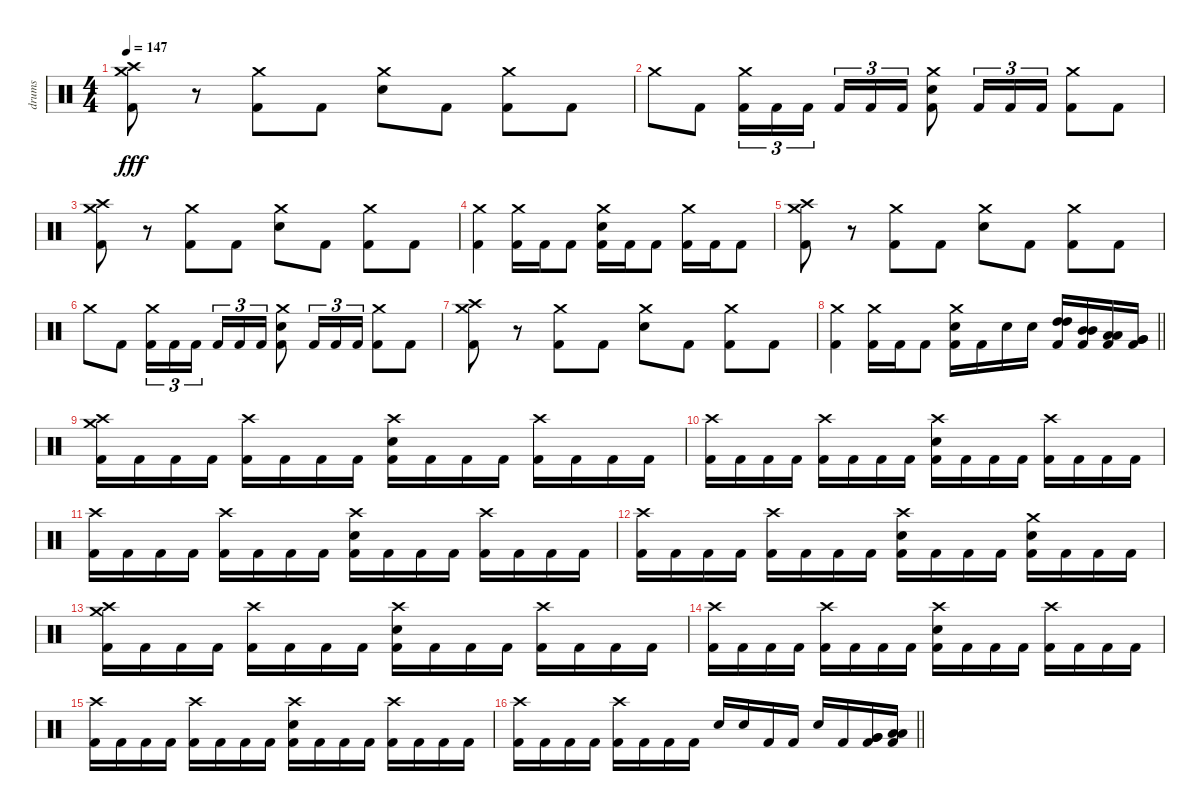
\track ("drums" "drums") {instrument percussion}
\staff {score}
\articulation defaults
\ts (4 4)
\section ("" "")
\tempo 147
\clef neutral
\ks c
("Crash high (hit)" "Crash medium (hit)" "Kick (hit) 2").8{dy fff} r.8 ("Crash medium (hit)" "Kick (hit) 2").8 "Kick (hit) 2".8 ("Crash medium (hit)" "Electric Snare (hit)").8 "Kick (hit) 2".8 ("Crash medium (hit)" "Kick (hit) 2").8 "Kick (hit) 2".8 |
"Crash medium (hit)".8 "Kick (hit) 2".8 ("Crash medium (hit)" "Kick (hit) 2").16{tu (3 2)} "Kick (hit) 2".16{tu (3 2)} "Kick (hit) 2".16{tu (3 2) beam splitsecondary} "Kick (hit) 2".16{tu (3 2)} "Kick (hit) 2".16{tu (3 2)} "Kick (hit) 2".16{tu (3 2)} ("Crash medium (hit)" "Electric Snare (hit)" "Kick (hit) 2").8 "Kick (hit) 2".16{tu (3 2)} "Kick (hit) 2".16{tu (3 2)} "Kick (hit) 2".16{tu (3 2)} ("Crash medium (hit)" "Kick (hit) 2").8 "Kick (hit) 2".8 |
("Crash high (hit)" "Crash medium (hit)" "Kick (hit) 2").8 r.8 ("Crash medium (hit)" "Kick (hit) 2").8 "Kick (hit) 2".8 ("Crash medium (hit)" "Electric Snare (hit)").8 "Kick (hit) 2".8 ("Crash medium (hit)" "Kick (hit) 2").8 "Kick (hit) 2".8 |
("Crash medium (hit)" "Kick (hit) 2").4 ("Crash medium (hit)" "Kick (hit) 2").16 "Kick (hit) 2".16 "Kick (hit) 2".8 ("Crash medium (hit)" "Electric Snare (hit)" "Kick (hit) 2").16 "Kick (hit) 2".16 "Kick (hit) 2".8 ("Crash medium (hit)" "Kick (hit) 2").16 "Kick (hit) 2".16 "Kick (hit) 2".8 |
("Crash high (hit)" "Crash medium (hit)" "Kick (hit) 2").8 r.8 ("Crash medium (hit)" "Kick (hit) 2").8 "Kick (hit) 2".8 ("Crash medium (hit)" "Electric Snare (hit)").8 "Kick (hit) 2".8 ("Crash medium (hit)" "Kick (hit) 2").8 "Kick (hit) 2".8 |
"Crash medium (hit)".8 "Kick (hit) 2".8 ("Crash medium (hit)" "Kick (hit) 2").16{tu (3 2)} "Kick (hit) 2".16{tu (3 2)} "Kick (hit) 2".16{tu (3 2) beam splitsecondary} "Kick (hit) 2".16{tu (3 2)} "Kick (hit) 2".16{tu (3 2)} "Kick (hit) 2".16{tu (3 2)} ("Crash medium (hit)" "Electric Snare (hit)" "Kick (hit) 2").8 "Kick (hit) 2".16{tu (3 2)} "Kick (hit) 2".16{tu (3 2)} "Kick (hit) 2".16{tu (3 2)} ("Crash medium (hit)" "Kick (hit) 2").8 "Kick (hit) 2".8 |
("Crash high (hit)" "Crash medium (hit)" "Kick (hit) 2").8 r.8 ("Crash medium (hit)" "Kick (hit) 2").8 "Kick (hit) 2".8 ("Crash medium (hit)" "Electric Snare (hit)").8 "Kick (hit) 2".8 ("Crash medium (hit)" "Kick (hit) 2").8 "Kick (hit) 2".8 |
\barLineRight lightlight
("Crash medium (hit)" "Kick (hit) 2").4 ("Crash medium (hit)" "Kick (hit) 2").16 "Kick (hit) 2".16 "Kick (hit) 2".8 ("Crash medium (hit)" "Electric Snare (hit)" "Kick (hit) 2").16 "Kick (hit) 2".16 "Electric Snare (hit)".16 "Electric Snare (hit)".16 ("High Tom (hit)" "High Tom (hit)" "Kick (hit) 2").16 ("Mid Tom (hit)" "Mid Tom (hit)" "Kick (hit) 2").16 ("Low Tom (hit)" "Low Tom (hit)" "Kick (hit) 2").16 ("Very Low Tom (hit)" "Very Low Tom (hit)" "Kick (hit) 2").16 |
\section ("" "")
("Crash high (hit)" "Crash medium (hit)" "Kick (hit) 2").16 "Kick (hit) 2".16 "Kick (hit) 2".16 "Kick (hit) 2".16 ("Crash high (hit)" "Kick (hit) 2").16 "Kick (hit) 2".16 "Kick (hit) 2".16 "Kick (hit) 2".16 ("Crash high (hit)" "Electric Snare (hit)" "Kick (hit) 2").16 "Kick (hit) 2".16 "Kick (hit) 2".16 "Kick (hit) 2".16 ("Crash high (hit)" "Kick (hit) 2").16 "Kick (hit) 2".16 "Kick (hit) 2".16 "Kick (hit) 2".16 |
("Crash high (hit)" "Kick (hit) 2").16 "Kick (hit) 2".16 "Kick (hit) 2".16 "Kick (hit) 2".16 ("Crash high (hit)" "Kick (hit) 2").16 "Kick (hit) 2".16 "Kick (hit) 2".16 "Kick (hit) 2".16 ("Crash high (hit)" "Electric Snare (hit)" "Kick (hit) 2").16 "Kick (hit) 2".16 "Kick (hit) 2".16 "Kick (hit) 2".16 ("Crash high (hit)" "Kick (hit) 2").16 "Kick (hit) 2".16 "Kick (hit) 2".16 "Kick (hit) 2".16 |
("Crash high (hit)" "Kick (hit) 2").16 "Kick (hit) 2".16 "Kick (hit) 2".16 "Kick (hit) 2".16 ("Crash high (hit)" "Kick (hit) 2").16 "Kick (hit) 2".16 "Kick (hit) 2".16 "Kick (hit) 2".16 ("Crash high (hit)" "Electric Snare (hit)" "Kick (hit) 2").16 "Kick (hit) 2".16 "Kick (hit) 2".16 "Kick (hit) 2".16 ("Crash high (hit)" "Kick (hit) 2").16 "Kick (hit) 2".16 "Kick (hit) 2".16 "Kick (hit) 2".16 |
("Crash high (hit)" "Kick (hit) 2").16 "Kick (hit) 2".16 "Kick (hit) 2".16 "Kick (hit) 2".16 ("Crash high (hit)" "Kick (hit) 2").16 "Kick (hit) 2".16 "Kick (hit) 2".16 "Kick (hit) 2".16 ("Crash high (hit)" "Electric Snare (hit)" "Kick (hit) 2").16 "Kick (hit) 2".16 "Kick (hit) 2".16 "Kick (hit) 2".16 ("Crash medium (hit)" "Electric Snare (hit)" "Kick (hit) 2").16 "Kick (hit) 2".16 "Kick (hit) 2".16 "Kick (hit) 2".16 |
("Crash high (hit)" "Crash medium (hit)" "Kick (hit) 2").16 "Kick (hit) 2".16 "Kick (hit) 2".16 "Kick (hit) 2".16 ("Crash high (hit)" "Kick (hit) 2").16 "Kick (hit) 2".16 "Kick (hit) 2".16 "Kick (hit) 2".16 ("Crash high (hit)" "Electric Snare (hit)" "Kick (hit) 2").16 "Kick (hit) 2".16 "Kick (hit) 2".16 "Kick (hit) 2".16 ("Crash high (hit)" "Kick (hit) 2").16 "Kick (hit) 2".16 "Kick (hit) 2".16 "Kick (hit) 2".16 |
("Crash high (hit)" "Kick (hit) 2").16 "Kick (hit) 2".16 "Kick (hit) 2".16 "Kick (hit) 2".16 ("Crash high (hit)" "Kick (hit) 2").16 "Kick (hit) 2".16 "Kick (hit) 2".16 "Kick (hit) 2".16 ("Crash high (hit)" "Electric Snare (hit)" "Kick (hit) 2").16 "Kick (hit) 2".16 "Kick (hit) 2".16 "Kick (hit) 2".16 ("Crash high (hit)" "Kick (hit) 2").16 "Kick (hit) 2".16 "Kick (hit) 2".16 "Kick (hit) 2".16 |
("Crash high (hit)" "Kick (hit) 2").16 "Kick (hit) 2".16 "Kick (hit) 2".16 "Kick (hit) 2".16 ("Crash high (hit)" "Kick (hit) 2").16 "Kick (hit) 2".16 "Kick (hit) 2".16 "Kick (hit) 2".16 ("Crash high (hit)" "Electric Snare (hit)" "Kick (hit) 2").16 "Kick (hit) 2".16 "Kick (hit) 2".16 "Kick (hit) 2".16 ("Crash high (hit)" "Kick (hit) 2").16 "Kick (hit) 2".16 "Kick (hit) 2".16 "Kick (hit) 2".16 |
\barLineRight lightlight
("Crash high (hit)" "Kick (hit) 2").16 "Kick (hit) 2".16 "Kick (hit) 2".16 "Kick (hit) 2".16 ("Crash high (hit)" "Kick (hit) 2").16 "Kick (hit) 2".16 "Kick (hit) 2".16 "Kick (hit) 2".16 "Electric Snare (hit)".16 "Electric Snare (hit)".16 "Kick (hit) 2".16 "Kick (hit) 2".16 "Electric Snare (hit)".16 "Kick (hit) 2".16 ("Very Low Tom (hit)" "Very Low Tom (hit)" "Kick (hit) 2").16 ("Low Floor Tom (hit)" "Low Floor Tom (hit)" "Kick (hit) 2").16
